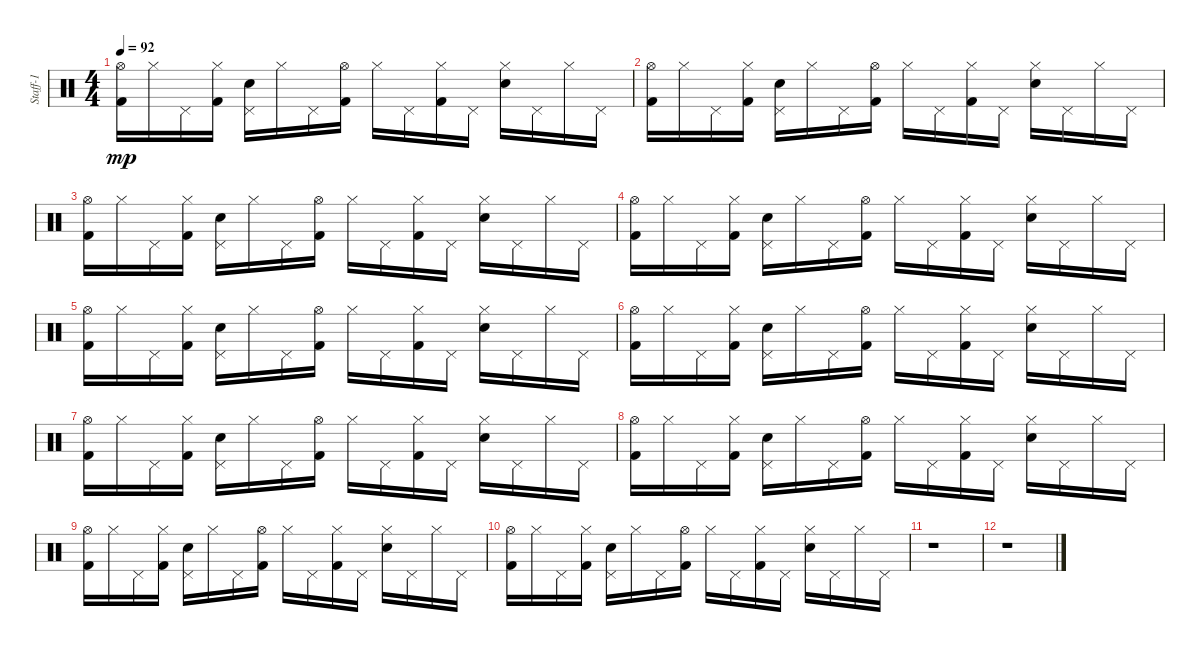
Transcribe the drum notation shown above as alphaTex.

\track ("Staff-1" "Staff-1") {instrument percussion}
\staff {score}
\articulation defaults
\ts (4 4)
\tempo 92
\clef neutral
\ks c
("Kick (hit) 2" "Hi-Hat (open)").16{dy mp} "Hi-Hat (closed)".16 "Pedal Hi-Hat (hit)".16 ("Kick (hit) 2" "Hi-Hat (closed)").16 ("Snare (hit) 2" "Pedal Hi-Hat (hit)").16 "Hi-Hat (closed)".16 "Pedal Hi-Hat (hit)".16 ("Kick (hit) 2" "Hi-Hat (open)").16 "Hi-Hat (closed)".16 "Pedal Hi-Hat (hit)".16 ("Kick (hit) 2" "Hi-Hat (closed)").16 "Pedal Hi-Hat (hit)".16 ("Snare (hit) 2" "Hi-Hat (closed)").16 "Pedal Hi-Hat (hit)".16 "Hi-Hat (closed)".16 "Pedal Hi-Hat (hit)".16 |
("Kick (hit) 2" "Hi-Hat (open)").16 "Hi-Hat (closed)".16 "Pedal Hi-Hat (hit)".16 ("Kick (hit) 2" "Hi-Hat (closed)").16 ("Snare (hit) 2" "Pedal Hi-Hat (hit)").16 "Hi-Hat (closed)".16 "Pedal Hi-Hat (hit)".16 ("Kick (hit) 2" "Hi-Hat (open)").16 "Hi-Hat (closed)".16 "Pedal Hi-Hat (hit)".16 ("Kick (hit) 2" "Hi-Hat (closed)").16 "Pedal Hi-Hat (hit)".16 ("Snare (hit) 2" "Hi-Hat (closed)").16 "Pedal Hi-Hat (hit)".16 "Hi-Hat (closed)".16 "Pedal Hi-Hat (hit)".16 |
("Kick (hit) 2" "Hi-Hat (open)").16 "Hi-Hat (closed)".16 "Pedal Hi-Hat (hit)".16 ("Kick (hit) 2" "Hi-Hat (closed)").16 ("Snare (hit) 2" "Pedal Hi-Hat (hit)").16 "Hi-Hat (closed)".16 "Pedal Hi-Hat (hit)".16 ("Kick (hit) 2" "Hi-Hat (open)").16 "Hi-Hat (closed)".16 "Pedal Hi-Hat (hit)".16 ("Kick (hit) 2" "Hi-Hat (closed)").16 "Pedal Hi-Hat (hit)".16 ("Snare (hit) 2" "Hi-Hat (closed)").16 "Pedal Hi-Hat (hit)".16 "Hi-Hat (closed)".16 "Pedal Hi-Hat (hit)".16 |
("Kick (hit) 2" "Hi-Hat (open)").16 "Hi-Hat (closed)".16 "Pedal Hi-Hat (hit)".16 ("Kick (hit) 2" "Hi-Hat (closed)").16 ("Snare (hit) 2" "Pedal Hi-Hat (hit)").16 "Hi-Hat (closed)".16 "Pedal Hi-Hat (hit)".16 ("Kick (hit) 2" "Hi-Hat (open)").16 "Hi-Hat (closed)".16 "Pedal Hi-Hat (hit)".16 ("Kick (hit) 2" "Hi-Hat (closed)").16 "Pedal Hi-Hat (hit)".16 ("Snare (hit) 2" "Hi-Hat (closed)").16 "Pedal Hi-Hat (hit)".16 "Hi-Hat (closed)".16 "Pedal Hi-Hat (hit)".16 |
("Kick (hit) 2" "Hi-Hat (open)").16 "Hi-Hat (closed)".16 "Pedal Hi-Hat (hit)".16 ("Kick (hit) 2" "Hi-Hat (closed)").16 ("Snare (hit) 2" "Pedal Hi-Hat (hit)").16 "Hi-Hat (closed)".16 "Pedal Hi-Hat (hit)".16 ("Kick (hit) 2" "Hi-Hat (open)").16 "Hi-Hat (closed)".16 "Pedal Hi-Hat (hit)".16 ("Kick (hit) 2" "Hi-Hat (closed)").16 "Pedal Hi-Hat (hit)".16 ("Snare (hit) 2" "Hi-Hat (closed)").16 "Pedal Hi-Hat (hit)".16 "Hi-Hat (closed)".16 "Pedal Hi-Hat (hit)".16 |
("Kick (hit) 2" "Hi-Hat (open)").16 "Hi-Hat (closed)".16 "Pedal Hi-Hat (hit)".16 ("Kick (hit) 2" "Hi-Hat (closed)").16 ("Snare (hit) 2" "Pedal Hi-Hat (hit)").16 "Hi-Hat (closed)".16 "Pedal Hi-Hat (hit)".16 ("Kick (hit) 2" "Hi-Hat (open)").16 "Hi-Hat (closed)".16 "Pedal Hi-Hat (hit)".16 ("Kick (hit) 2" "Hi-Hat (closed)").16 "Pedal Hi-Hat (hit)".16 ("Snare (hit) 2" "Hi-Hat (closed)").16 "Pedal Hi-Hat (hit)".16 "Hi-Hat (closed)".16 "Pedal Hi-Hat (hit)".16 |
("Kick (hit) 2" "Hi-Hat (open)").16 "Hi-Hat (closed)".16 "Pedal Hi-Hat (hit)".16 ("Kick (hit) 2" "Hi-Hat (closed)").16 ("Snare (hit) 2" "Pedal Hi-Hat (hit)").16 "Hi-Hat (closed)".16 "Pedal Hi-Hat (hit)".16 ("Kick (hit) 2" "Hi-Hat (open)").16 "Hi-Hat (closed)".16 "Pedal Hi-Hat (hit)".16 ("Kick (hit) 2" "Hi-Hat (closed)").16 "Pedal Hi-Hat (hit)".16 ("Snare (hit) 2" "Hi-Hat (closed)").16 "Pedal Hi-Hat (hit)".16 "Hi-Hat (closed)".16 "Pedal Hi-Hat (hit)".16 |
("Kick (hit) 2" "Hi-Hat (open)").16 "Hi-Hat (closed)".16 "Pedal Hi-Hat (hit)".16 ("Kick (hit) 2" "Hi-Hat (closed)").16 ("Snare (hit) 2" "Pedal Hi-Hat (hit)").16 "Hi-Hat (closed)".16 "Pedal Hi-Hat (hit)".16 ("Kick (hit) 2" "Hi-Hat (open)").16 "Hi-Hat (closed)".16 "Pedal Hi-Hat (hit)".16 ("Kick (hit) 2" "Hi-Hat (closed)").16 "Pedal Hi-Hat (hit)".16 ("Snare (hit) 2" "Hi-Hat (closed)").16 "Pedal Hi-Hat (hit)".16 "Hi-Hat (closed)".16 "Pedal Hi-Hat (hit)".16 |
("Kick (hit) 2" "Hi-Hat (open)").16 "Hi-Hat (closed)".16 "Pedal Hi-Hat (hit)".16 ("Kick (hit) 2" "Hi-Hat (closed)").16 ("Snare (hit) 2" "Pedal Hi-Hat (hit)").16 "Hi-Hat (closed)".16 "Pedal Hi-Hat (hit)".16 ("Kick (hit) 2" "Hi-Hat (open)").16 "Hi-Hat (closed)".16 "Pedal Hi-Hat (hit)".16 ("Kick (hit) 2" "Hi-Hat (closed)").16 "Pedal Hi-Hat (hit)".16 ("Snare (hit) 2" "Hi-Hat (closed)").16 "Pedal Hi-Hat (hit)".16 "Hi-Hat (closed)".16 "Pedal Hi-Hat (hit)".16 |
("Kick (hit) 2" "Hi-Hat (open)").16 "Hi-Hat (closed)".16 "Pedal Hi-Hat (hit)".16 ("Kick (hit) 2" "Hi-Hat (closed)").16 ("Snare (hit) 2" "Pedal Hi-Hat (hit)").16 "Hi-Hat (closed)".16 "Pedal Hi-Hat (hit)".16 ("Kick (hit) 2" "Hi-Hat (open)").16 "Hi-Hat (closed)".16 "Pedal Hi-Hat (hit)".16 ("Kick (hit) 2" "Hi-Hat (closed)").16 "Pedal Hi-Hat (hit)".16 ("Snare (hit) 2" "Hi-Hat (closed)").16 "Pedal Hi-Hat (hit)".16 "Hi-Hat (closed)".16 "Pedal Hi-Hat (hit)".16 |
r.1 |
r.1
